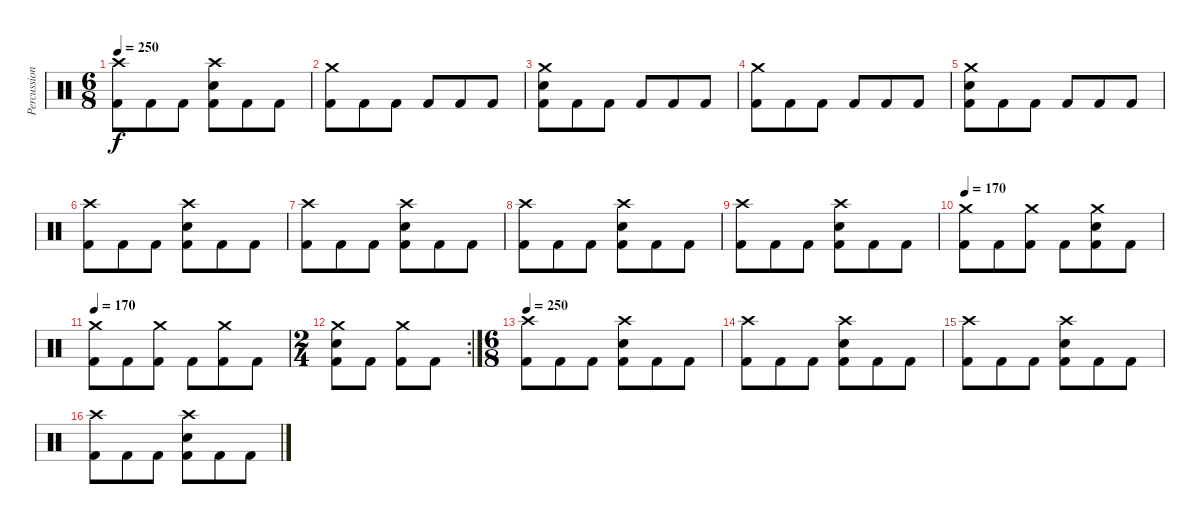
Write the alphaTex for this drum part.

\track ("Percussion" "Percussion") {instrument percussion}
\staff {score}
\articulation defaults
\ts (6 8)
\tempo 250
\clef neutral
\ks c
("Crash high (hit)" "Kick (hit) 2").8{dy f} "Kick (hit) 2".8 "Kick (hit) 2".8 ("Crash high (hit)" "Electric Snare (hit)" "Kick (hit) 2").8 "Kick (hit) 2".8 "Kick (hit) 2".8 |
("Crash medium (hit)" "Kick (hit) 2").8 "Kick (hit) 2".8 "Kick (hit) 2".8 "Kick (hit) 2".8 "Kick (hit) 2".8 "Kick (hit) 2".8 |
("Crash medium (hit)" "Electric Snare (hit)" "Kick (hit) 2").8 "Kick (hit) 2".8 "Kick (hit) 2".8 "Kick (hit) 2".8 "Kick (hit) 2".8 "Kick (hit) 2".8 |
("Crash medium (hit)" "Kick (hit) 2").8 "Kick (hit) 2".8 "Kick (hit) 2".8 "Kick (hit) 2".8 "Kick (hit) 2".8 "Kick (hit) 2".8 |
("Crash medium (hit)" "Electric Snare (hit)" "Kick (hit) 2").8 "Kick (hit) 2".8 "Kick (hit) 2".8 "Kick (hit) 2".8 "Kick (hit) 2".8 "Kick (hit) 2".8 |
("Crash high (hit)" "Kick (hit) 2").8 "Kick (hit) 2".8 "Kick (hit) 2".8 ("Crash high (hit)" "Electric Snare (hit)" "Kick (hit) 2").8 "Kick (hit) 2".8 "Kick (hit) 2".8 |
("Crash high (hit)" "Kick (hit) 2").8 "Kick (hit) 2".8 "Kick (hit) 2".8 ("Crash high (hit)" "Electric Snare (hit)" "Kick (hit) 2").8 "Kick (hit) 2".8 "Kick (hit) 2".8 |
("Crash high (hit)" "Kick (hit) 2").8 "Kick (hit) 2".8 "Kick (hit) 2".8 ("Crash high (hit)" "Electric Snare (hit)" "Kick (hit) 2").8 "Kick (hit) 2".8 "Kick (hit) 2".8 |
("Crash high (hit)" "Kick (hit) 2").8 "Kick (hit) 2".8 "Kick (hit) 2".8 ("Crash high (hit)" "Electric Snare (hit)" "Kick (hit) 2").8 "Kick (hit) 2".8 "Kick (hit) 2".8 |
\tempo 170
("Crash medium (hit)" "Kick (hit) 2").8 "Kick (hit) 2".8 ("Crash medium (hit)" "Kick (hit) 2").8 "Kick (hit) 2".8 ("Crash medium (hit)" "Electric Snare (hit)" "Kick (hit) 2").8 "Kick (hit) 2".8 |
\tempo 170
("Crash medium (hit)" "Kick (hit) 2").8 "Kick (hit) 2".8 ("Crash medium (hit)" "Kick (hit) 2").8 "Kick (hit) 2".8 ("Crash medium (hit)" "Kick (hit) 2").8 "Kick (hit) 2".8 |
\rc 2
\ts (2 4)
("Crash medium (hit)" "Electric Snare (hit)" "Kick (hit) 2").8 "Kick (hit) 2".8 ("Crash medium (hit)" "Kick (hit) 2").8 "Kick (hit) 2".8 |
\ts (6 8)
\tempo 250
("Crash high (hit)" "Kick (hit) 2").8 "Kick (hit) 2".8 "Kick (hit) 2".8 ("Crash high (hit)" "Electric Snare (hit)" "Kick (hit) 2").8 "Kick (hit) 2".8 "Kick (hit) 2".8 |
("Crash high (hit)" "Kick (hit) 2").8 "Kick (hit) 2".8 "Kick (hit) 2".8 ("Crash high (hit)" "Electric Snare (hit)" "Kick (hit) 2").8 "Kick (hit) 2".8 "Kick (hit) 2".8 |
("Crash high (hit)" "Kick (hit) 2").8 "Kick (hit) 2".8 "Kick (hit) 2".8 ("Crash high (hit)" "Electric Snare (hit)" "Kick (hit) 2").8 "Kick (hit) 2".8 "Kick (hit) 2".8 |
("Crash high (hit)" "Kick (hit) 2").8 "Kick (hit) 2".8 "Kick (hit) 2".8 ("Crash high (hit)" "Electric Snare (hit)" "Kick (hit) 2").8 "Kick (hit) 2".8 "Kick (hit) 2".8
